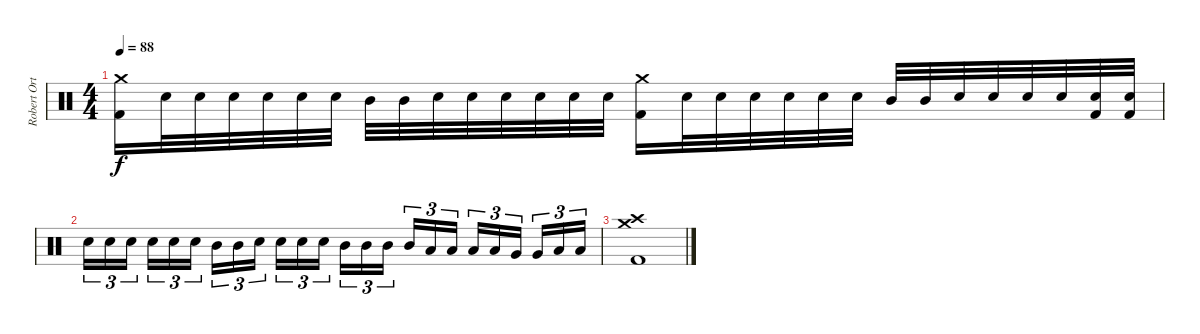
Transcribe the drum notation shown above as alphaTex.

\track ("Robert Ortiz" "Robert Ort") {instrument percussion}
\staff {score}
\articulation defaults
\ts (4 4)
\tempo 88
\clef neutral
\ks c
("Kick (hit) 2" "Crash medium (hit)").16{dy f} "Electric Snare (hit)".32 "Electric Snare (hit)".32 "Electric Snare (hit)".32 "Electric Snare (hit)".32 "Electric Snare (hit)".32 "Electric Snare (hit)".32 "Mid Tom (hit)".32 "Mid Tom (hit)".32 "Electric Snare (hit)".32 "Electric Snare (hit)".32 "Electric Snare (hit)".32 "Electric Snare (hit)".32 "Electric Snare (hit)".32 "Electric Snare (hit)".32 ("Kick (hit) 2" "Crash medium (hit)").16 "Electric Snare (hit)".32 "Electric Snare (hit)".32 "Electric Snare (hit)".32 "Electric Snare (hit)".32 "Electric Snare (hit)".32 "Electric Snare (hit)".32 "Mid Tom (hit)".32 "Mid Tom (hit)".32 "Electric Snare (hit)".32 "Electric Snare (hit)".32 "Electric Snare (hit)".32 "Electric Snare (hit)".32 ("Kick (hit) 2" "Electric Snare (hit)").32 ("Kick (hit) 2" "Electric Snare (hit)").32 |
"Electric Snare (hit)".16{tu (3 2)} "Electric Snare (hit)".16{tu (3 2)} "Electric Snare (hit)".16{tu (3 2) beam splitsecondary} "Electric Snare (hit)".16{tu (3 2)} "Electric Snare (hit)".16{tu (3 2)} "Electric Snare (hit)".16{tu (3 2)} "Mid Tom (hit)".16{tu (3 2)} "Mid Tom (hit)".16{tu (3 2)} "Electric Snare (hit)".16{tu (3 2) beam splitsecondary} "Electric Snare (hit)".16{tu (3 2)} "Electric Snare (hit)".16{tu (3 2)} "Electric Snare (hit)".16{tu (3 2)} "Mid Tom (hit)".16{tu (3 2)} "Mid Tom (hit)".16{tu (3 2)} "Mid Tom (hit)".16{tu (3 2) beam splitsecondary} "Mid Tom (hit)".16{tu (3 2)} "Low Tom (hit)".16{tu (3 2)} "Low Tom (hit)".16{tu (3 2)} "Low Tom (hit)".16{tu (3 2)} "Low Tom (hit)".16{tu (3 2)} "Very Low Tom (hit)".16{tu (3 2) beam splitsecondary} "Very Low Tom (hit)".16{tu (3 2)} "Low Floor Tom (hit)".16{tu (3 2)} "Low Floor Tom (hit)".16{tu (3 2)} |
("Kick (hit) 2" "Crash medium (hit)" "Crash high (hit)").1
